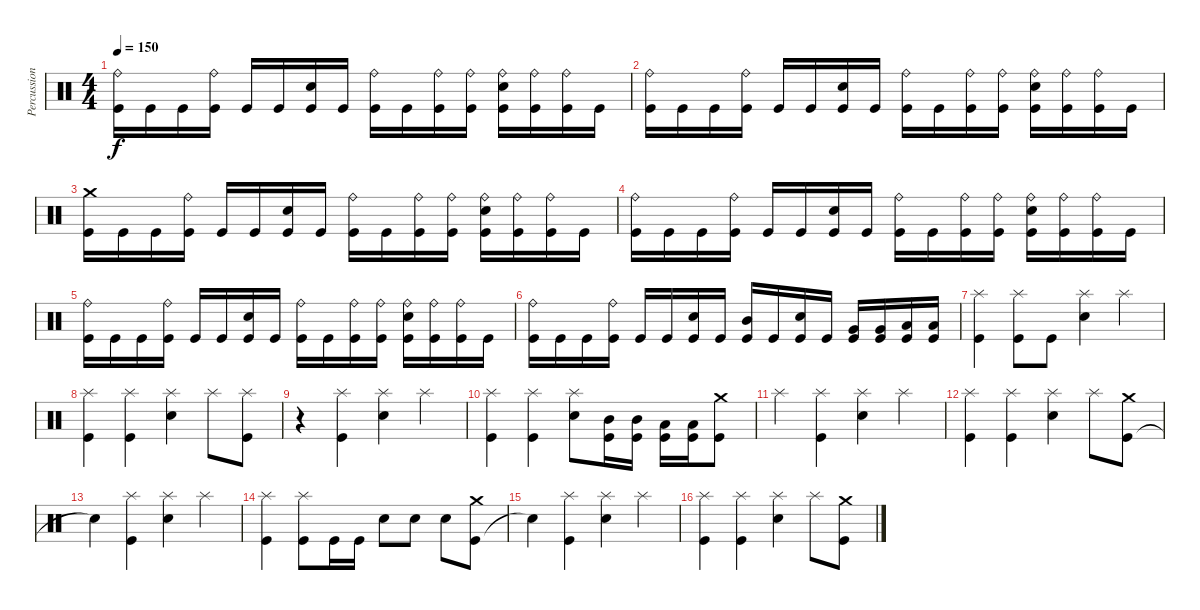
\track ("Percussions" "Percussion") {instrument percussion}
\staff {score}
\articulation defaults
\ts (4 4)
\tempo 150
\clef neutral
\ks c
("Kick (hit)" "Ride (bell)").16{dy f} "Kick (hit)".16 "Kick (hit)".16 ("Kick (hit)" "Ride (bell)").16 "Kick (hit)".16 "Kick (hit)".16 ("Kick (hit)" "Electric Snare (hit)").16 "Kick (hit)".16 ("Kick (hit)" "Ride (bell)").16 "Kick (hit)".16 ("Kick (hit)" "Ride (bell)").16 ("Kick (hit)" "Ride (bell)").16 ("Kick (hit)" "Electric Snare (hit)" "Ride (bell)").16 ("Kick (hit)" "Ride (bell)").16 ("Kick (hit)" "Ride (bell)").16 "Kick (hit)".16 |
("Kick (hit)" "Ride (bell)").16 "Kick (hit)".16 "Kick (hit)".16 ("Kick (hit)" "Ride (bell)").16 "Kick (hit)".16 "Kick (hit)".16 ("Kick (hit)" "Electric Snare (hit)").16 "Kick (hit)".16 ("Kick (hit)" "Ride (bell)").16 "Kick (hit)".16 ("Kick (hit)" "Ride (bell)").16 ("Kick (hit)" "Ride (bell)").16 ("Kick (hit)" "Electric Snare (hit)" "Ride (bell)").16 ("Kick (hit)" "Ride (bell)").16 ("Kick (hit)" "Ride (bell)").16 "Kick (hit)".16 |
("Kick (hit)" "Crash medium (hit)").16 "Kick (hit)".16 "Kick (hit)".16 ("Kick (hit)" "Ride (bell)").16 "Kick (hit)".16 "Kick (hit)".16 ("Kick (hit)" "Electric Snare (hit)").16 "Kick (hit)".16 ("Kick (hit)" "Ride (bell)").16 "Kick (hit)".16 ("Kick (hit)" "Ride (bell)").16 ("Kick (hit)" "Ride (bell)").16 ("Kick (hit)" "Electric Snare (hit)" "Ride (bell)").16 ("Kick (hit)" "Ride (bell)").16 ("Kick (hit)" "Ride (bell)").16 "Kick (hit)".16 |
("Kick (hit)" "Ride (bell)").16 "Kick (hit)".16 "Kick (hit)".16 ("Kick (hit)" "Ride (bell)").16 "Kick (hit)".16 "Kick (hit)".16 ("Kick (hit)" "Electric Snare (hit)").16 "Kick (hit)".16 ("Kick (hit)" "Ride (bell)").16 "Kick (hit)".16 ("Kick (hit)" "Ride (bell)").16 ("Kick (hit)" "Ride (bell)").16 ("Kick (hit)" "Electric Snare (hit)" "Ride (bell)").16 ("Kick (hit)" "Ride (bell)").16 ("Kick (hit)" "Ride (bell)").16 "Kick (hit)".16 |
("Kick (hit)" "Ride (bell)").16 "Kick (hit)".16 "Kick (hit)".16 ("Kick (hit)" "Ride (bell)").16 "Kick (hit)".16 "Kick (hit)".16 ("Kick (hit)" "Electric Snare (hit)").16 "Kick (hit)".16 ("Kick (hit)" "Ride (bell)").16 "Kick (hit)".16 ("Kick (hit)" "Ride (bell)").16 ("Kick (hit)" "Ride (bell)").16 ("Kick (hit)" "Electric Snare (hit)" "Ride (bell)").16 ("Kick (hit)" "Ride (bell)").16 ("Kick (hit)" "Ride (bell)").16 "Kick (hit)".16 |
("Kick (hit)" "Ride (bell)").16 "Kick (hit)".16 "Kick (hit)".16 ("Kick (hit)" "Ride (bell)").16 "Kick (hit)".16 "Kick (hit)".16 ("Kick (hit)" "Electric Snare (hit)").16 "Kick (hit)".16 ("Kick (hit)" "Mid Tom (hit)").16 "Kick (hit)".16 ("Kick (hit)" "Electric Snare (hit)").16 "Kick (hit)".16 ("Kick (hit)" "Very Low Tom (hit)").16 ("Kick (hit)" "Very Low Tom (hit)").16 ("Kick (hit)" "Low Floor Tom (hit)").16 ("Kick (hit)" "Low Floor Tom (hit)").16 |
("Kick (hit)" "Splash (hit)").4 ("Kick (hit)" "Splash (hit)").8 "Kick (hit)".8 ("Electric Snare (hit)" "Splash (hit)").4 "Splash (hit)".4 |
("Kick (hit)" "Splash (hit)").4 ("Kick (hit)" "Splash (hit)").4 ("Electric Snare (hit)" "Splash (hit)").4 "Splash (hit)".8 ("Kick (hit)" "Splash (hit)").8 |
r.4 ("Kick (hit)" "Splash (hit)").4 ("Electric Snare (hit)" "Splash (hit)").4 "Splash (hit)".4 |
("Kick (hit)" "Splash (hit)").4 ("Kick (hit)" "Splash (hit)").4 ("Electric Snare (hit)" "Splash (hit)").8 ("Kick (hit)" "Mid Tom (hit)").16 ("Kick (hit)" "Mid Tom (hit)").16 ("Kick (hit)" "Low Tom (hit)").16 ("Kick (hit)" "Low Tom (hit)").16 ("Kick (hit)" "Crash medium (hit)").8 |
"Splash (hit)".4 ("Kick (hit)" "Splash (hit)").4 ("Electric Snare (hit)" "Splash (hit)").4 "Splash (hit)".4 |
("Kick (hit)" "Splash (hit)").4 ("Kick (hit)" "Splash (hit)").4 ("Electric Snare (hit)" "Splash (hit)").4 "Splash (hit)".8 ("Kick (hit)" "Crash medium (hit)").8 |
"Snare (hit)"{t}.4 ("Kick (hit)" "Splash (hit)").4 ("Electric Snare (hit)" "Splash (hit)").4 "Splash (hit)".4 |
("Kick (hit)" "Splash (hit)").4 ("Kick (hit)" "Splash (hit)").8 "Kick (hit)".16 "Kick (hit)".16 "Electric Snare (hit)".8 "Electric Snare (hit)".8 "Electric Snare (hit)".8 ("Kick (hit)" "Crash medium (hit)").8 |
"Snare (hit)"{t}.4 ("Kick (hit)" "Splash (hit)").4 ("Electric Snare (hit)" "Splash (hit)").4 "Splash (hit)".4 |
("Kick (hit)" "Splash (hit)").4 ("Kick (hit)" "Splash (hit)").4 ("Electric Snare (hit)" "Splash (hit)").4 "Splash (hit)".8 ("Kick (hit)" "Crash medium (hit)").8
